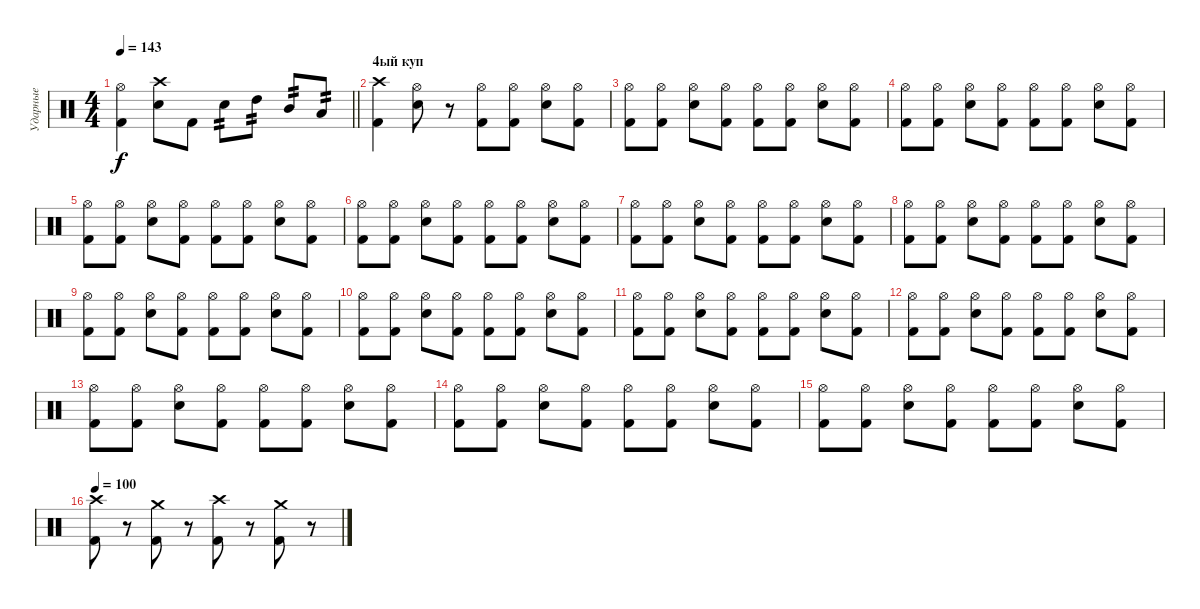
\track ("Ударные" "Ударные") {instrument percussion}
\staff {score}
\articulation defaults
\ts (4 4)
\tempo 143
\clef neutral
\barLineRight lightlight
\ks c
("Hi-Hat (open)" "Kick (hit) 2").4{dy f} ("Crash high (hit)" "Electric Snare (hit)").8 "Kick (hit) 2".8 "Electric Snare (hit)".8{tp 2} "High Tom (hit)".8{tp 2} "Mid Tom (hit)".8{tp 2} "Low Tom (hit)".8{tp 2} |
\section ("" "4ый куп")
("Crash high (hit)" "Kick (hit) 2").4 ("Hi-Hat (open)" "Electric Snare (hit)").8 r.8 ("Hi-Hat (open)" "Kick (hit) 2").8 ("Hi-Hat (open)" "Kick (hit) 2").8 ("Hi-Hat (open)" "Electric Snare (hit)").8 ("Hi-Hat (open)" "Kick (hit) 2").8 |
("Hi-Hat (open)" "Kick (hit) 2").8 ("Hi-Hat (open)" "Kick (hit) 2").8 ("Hi-Hat (open)" "Electric Snare (hit)").8 ("Hi-Hat (open)" "Kick (hit) 2").8 ("Hi-Hat (open)" "Kick (hit) 2").8 ("Hi-Hat (open)" "Kick (hit) 2").8 ("Hi-Hat (open)" "Electric Snare (hit)").8 ("Hi-Hat (open)" "Kick (hit) 2").8 |
("Hi-Hat (open)" "Kick (hit) 2").8 ("Hi-Hat (open)" "Kick (hit) 2").8 ("Hi-Hat (open)" "Electric Snare (hit)").8 ("Hi-Hat (open)" "Kick (hit) 2").8 ("Hi-Hat (open)" "Kick (hit) 2").8 ("Hi-Hat (open)" "Kick (hit) 2").8 ("Hi-Hat (open)" "Electric Snare (hit)").8 ("Hi-Hat (open)" "Kick (hit) 2").8 |
("Hi-Hat (open)" "Kick (hit) 2").8 ("Hi-Hat (open)" "Kick (hit) 2").8 ("Hi-Hat (open)" "Electric Snare (hit)").8 ("Hi-Hat (open)" "Kick (hit) 2").8 ("Hi-Hat (open)" "Kick (hit) 2").8 ("Hi-Hat (open)" "Kick (hit) 2").8 ("Hi-Hat (open)" "Electric Snare (hit)").8 ("Hi-Hat (open)" "Kick (hit) 2").8 |
("Hi-Hat (open)" "Kick (hit) 2").8 ("Hi-Hat (open)" "Kick (hit) 2").8 ("Hi-Hat (open)" "Electric Snare (hit)").8 ("Hi-Hat (open)" "Kick (hit) 2").8 ("Hi-Hat (open)" "Kick (hit) 2").8 ("Hi-Hat (open)" "Kick (hit) 2").8 ("Hi-Hat (open)" "Electric Snare (hit)").8 ("Hi-Hat (open)" "Kick (hit) 2").8 |
("Hi-Hat (open)" "Kick (hit) 2").8 ("Hi-Hat (open)" "Kick (hit) 2").8 ("Hi-Hat (open)" "Electric Snare (hit)").8 ("Hi-Hat (open)" "Kick (hit) 2").8 ("Hi-Hat (open)" "Kick (hit) 2").8 ("Hi-Hat (open)" "Kick (hit) 2").8 ("Hi-Hat (open)" "Electric Snare (hit)").8 ("Hi-Hat (open)" "Kick (hit) 2").8 |
("Hi-Hat (open)" "Kick (hit) 2").8 ("Hi-Hat (open)" "Kick (hit) 2").8 ("Hi-Hat (open)" "Electric Snare (hit)").8 ("Hi-Hat (open)" "Kick (hit) 2").8 ("Hi-Hat (open)" "Kick (hit) 2").8 ("Hi-Hat (open)" "Kick (hit) 2").8 ("Hi-Hat (open)" "Electric Snare (hit)").8 ("Hi-Hat (open)" "Kick (hit) 2").8 |
("Hi-Hat (open)" "Kick (hit) 2").8 ("Hi-Hat (open)" "Kick (hit) 2").8 ("Hi-Hat (open)" "Electric Snare (hit)").8 ("Hi-Hat (open)" "Kick (hit) 2").8 ("Hi-Hat (open)" "Kick (hit) 2").8 ("Hi-Hat (open)" "Kick (hit) 2").8 ("Hi-Hat (open)" "Electric Snare (hit)").8 ("Hi-Hat (open)" "Kick (hit) 2").8 |
("Hi-Hat (open)" "Kick (hit) 2").8 ("Hi-Hat (open)" "Kick (hit) 2").8 ("Hi-Hat (open)" "Electric Snare (hit)").8 ("Hi-Hat (open)" "Kick (hit) 2").8 ("Hi-Hat (open)" "Kick (hit) 2").8 ("Hi-Hat (open)" "Kick (hit) 2").8 ("Hi-Hat (open)" "Electric Snare (hit)").8 ("Hi-Hat (open)" "Kick (hit) 2").8 |
("Hi-Hat (open)" "Kick (hit) 2").8 ("Hi-Hat (open)" "Kick (hit) 2").8 ("Hi-Hat (open)" "Electric Snare (hit)").8 ("Hi-Hat (open)" "Kick (hit) 2").8 ("Hi-Hat (open)" "Kick (hit) 2").8 ("Hi-Hat (open)" "Kick (hit) 2").8 ("Hi-Hat (open)" "Electric Snare (hit)").8 ("Hi-Hat (open)" "Kick (hit) 2").8 |
("Hi-Hat (open)" "Kick (hit) 2").8 ("Hi-Hat (open)" "Kick (hit) 2").8 ("Hi-Hat (open)" "Electric Snare (hit)").8 ("Hi-Hat (open)" "Kick (hit) 2").8 ("Hi-Hat (open)" "Kick (hit) 2").8 ("Hi-Hat (open)" "Kick (hit) 2").8 ("Hi-Hat (open)" "Electric Snare (hit)").8 ("Hi-Hat (open)" "Kick (hit) 2").8 |
("Hi-Hat (open)" "Kick (hit) 2").8 ("Hi-Hat (open)" "Kick (hit) 2").8 ("Hi-Hat (open)" "Electric Snare (hit)").8 ("Hi-Hat (open)" "Kick (hit) 2").8 ("Hi-Hat (open)" "Kick (hit) 2").8 ("Hi-Hat (open)" "Kick (hit) 2").8 ("Hi-Hat (open)" "Electric Snare (hit)").8 ("Hi-Hat (open)" "Kick (hit) 2").8 |
("Hi-Hat (open)" "Kick (hit) 2").8 ("Hi-Hat (open)" "Kick (hit) 2").8 ("Hi-Hat (open)" "Electric Snare (hit)").8 ("Hi-Hat (open)" "Kick (hit) 2").8 ("Hi-Hat (open)" "Kick (hit) 2").8 ("Hi-Hat (open)" "Kick (hit) 2").8 ("Hi-Hat (open)" "Electric Snare (hit)").8 ("Hi-Hat (open)" "Kick (hit) 2").8 |
("Hi-Hat (open)" "Kick (hit) 2").8 ("Hi-Hat (open)" "Kick (hit) 2").8 ("Hi-Hat (open)" "Electric Snare (hit)").8 ("Hi-Hat (open)" "Kick (hit) 2").8 ("Hi-Hat (open)" "Kick (hit) 2").8 ("Hi-Hat (open)" "Kick (hit) 2").8 ("Hi-Hat (open)" "Electric Snare (hit)").8 ("Hi-Hat (open)" "Kick (hit) 2").8 |
\tempo 100
("Crash high (hit)" "Kick (hit) 2").8 r.8 ("Crash medium (hit)" "Kick (hit) 2").8 r.8 ("Crash high (hit)" "Kick (hit) 2").8 r.8 ("Crash medium (hit)" "Kick (hit) 2").8 r.8
